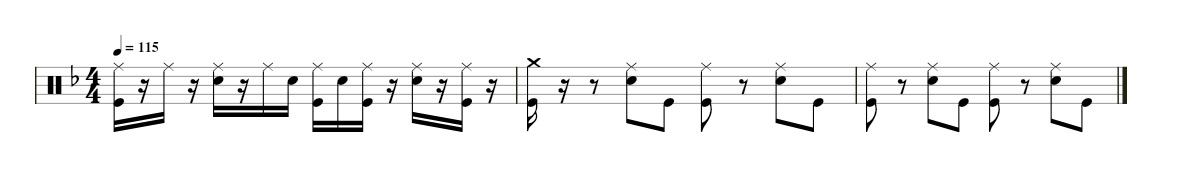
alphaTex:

\hideDynamics
\bracketExtendMode groupsimilarinstruments
\singleTrackTrackNamePolicy hidden
\multiTrackTrackNamePolicy hidden
\firstSystemTrackNameOrientation horizontal
\otherSystemsTrackNameOrientation horizontal
\chordDiagramsInScore
\defaultBarNumberDisplay Hide
\track ("Drumkit" "Drums") {instrument percussion}
\staff {score}
\articulation defaults
\ts (4 4)
\tempo 115
\clef neutral
\ks dminor
("Ride (middle)" "Kick (hit)").16{dy f} r.16 "Ride (middle)".16 r.16 ("Ride (middle)" "Snare (hit) 2").16 r.16 "Ride (middle)".16 "Snare (hit) 2".16 ("Ride (middle)" "Kick (hit)").16 "Snare (hit) 2".16 ("Ride (middle)" "Kick (hit)").16 r.16 ("Snare (hit) 2" "Ride (middle)").16 r.16 ("Ride (middle)" "Kick (hit)").16 r.16 |
("Crash medium (hit)" "Kick (hit)").16 r.16 r.8 ("Snare (hit) 2" "Ride (middle)").8 "Kick (hit)".8 ("Kick (hit)" "Ride (middle)").8 r.8 ("Ride (middle)" "Snare (hit) 2").8 "Kick (hit)".8 |
("Kick (hit)" "Ride (middle)").8 r.8 ("Snare (hit) 2" "Ride (middle)").8 "Kick (hit)".8 ("Kick (hit)" "Ride (middle)").8 r.8 ("Ride (middle)" "Snare (hit) 2").8 "Kick (hit)".8
